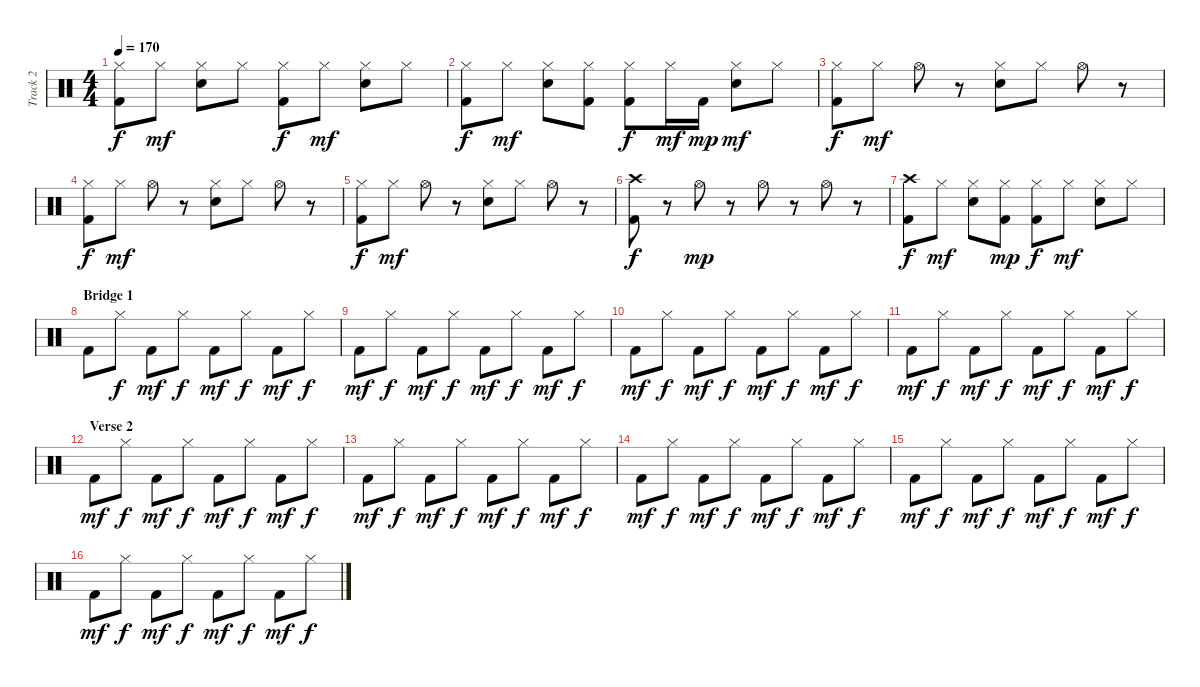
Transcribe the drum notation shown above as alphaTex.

\track ("Track 2" "Track 2") {instrument percussion}
\staff {score}
\articulation defaults
\ts (4 4)
\tempo 170
\clef neutral
\ks c
("Hi-Hat (closed)" "Kick (hit) 2").8{dy f} "Hi-Hat (closed)".8{dy mf} ("Hi-Hat (closed)" "Electric Snare (hit)").8 "Hi-Hat (closed)".8 ("Hi-Hat (closed)" "Kick (hit) 2").8{dy f} "Hi-Hat (closed)".8{dy mf} ("Hi-Hat (closed)" "Electric Snare (hit)").8 "Hi-Hat (closed)".8 |
("Hi-Hat (closed)" "Kick (hit) 2").8{dy f} "Hi-Hat (closed)".8{dy mf} ("Hi-Hat (closed)" "Electric Snare (hit)").8 ("Hi-Hat (closed)" "Kick (hit) 2").8 ("Hi-Hat (closed)" "Kick (hit) 2").8{dy f} "Hi-Hat (closed)".16{dy mf} "Kick (hit) 2".16{dy mp} ("Hi-Hat (closed)" "Electric Snare (hit)").8{dy mf} "Hi-Hat (closed)".8 |
("Hi-Hat (closed)" "Kick (hit) 2").8{dy f} "Hi-Hat (closed)".8{dy mf} "Hi-Hat (open)".8 r.8 ("Hi-Hat (closed)" "Electric Snare (hit)").8 "Hi-Hat (closed)".8 "Hi-Hat (open)".8 r.8 |
("Hi-Hat (closed)" "Kick (hit) 2").8{dy f} "Hi-Hat (closed)".8{dy mf} "Hi-Hat (open)".8 r.8 ("Hi-Hat (closed)" "Electric Snare (hit)").8 "Hi-Hat (closed)".8 "Hi-Hat (open)".8 r.8 |
("Hi-Hat (closed)" "Kick (hit) 2").8{dy f} "Hi-Hat (closed)".8{dy mf} "Hi-Hat (open)".8 r.8 ("Hi-Hat (closed)" "Electric Snare (hit)").8 "Hi-Hat (closed)".8 "Hi-Hat (open)".8 r.8 |
("Crash high (hit)" "Kick (hit) 2").8{dy f} r.8 "Hi-Hat (open)".8{dy mp} r.8 "Hi-Hat (open)".8 r.8 "Hi-Hat (open)".8 r.8 |
("Crash high (hit)" "Kick (hit) 2").8{dy f} "Hi-Hat (closed)".8{dy mf} ("Hi-Hat (closed)" "Electric Snare (hit)").8 ("Hi-Hat (closed)" "Kick (hit) 2").8{dy mp} ("Hi-Hat (closed)" "Kick (hit) 2").8{dy f} "Hi-Hat (closed)".8{dy mf} ("Hi-Hat (closed)" "Electric Snare (hit)").8 "Hi-Hat (closed)".8 |
\section ("" "Bridge 1")
"Kick (hit) 2".8 "Hi-Hat (closed)".8{dy f} "Kick (hit) 2".8{dy mf} "Hi-Hat (closed)".8{dy f} "Kick (hit) 2".8{dy mf} "Hi-Hat (closed)".8{dy f} "Kick (hit) 2".8{dy mf} "Hi-Hat (closed)".8{dy f} |
"Kick (hit) 2".8{dy mf} "Hi-Hat (closed)".8{dy f} "Kick (hit) 2".8{dy mf} "Hi-Hat (closed)".8{dy f} "Kick (hit) 2".8{dy mf} "Hi-Hat (closed)".8{dy f} "Kick (hit) 2".8{dy mf} "Hi-Hat (closed)".8{dy f} |
"Kick (hit) 2".8{dy mf} "Hi-Hat (closed)".8{dy f} "Kick (hit) 2".8{dy mf} "Hi-Hat (closed)".8{dy f} "Kick (hit) 2".8{dy mf} "Hi-Hat (closed)".8{dy f} "Kick (hit) 2".8{dy mf} "Hi-Hat (closed)".8{dy f} |
"Kick (hit) 2".8{dy mf} "Hi-Hat (closed)".8{dy f} "Kick (hit) 2".8{dy mf} "Hi-Hat (closed)".8{dy f} "Kick (hit) 2".8{dy mf} "Hi-Hat (closed)".8{dy f} "Kick (hit) 2".8{dy mf} "Hi-Hat (closed)".8{dy f} |
\section ("" "Verse 2")
"Kick (hit) 2".8{dy mf} "Hi-Hat (closed)".8{dy f} "Kick (hit) 2".8{dy mf} "Hi-Hat (closed)".8{dy f} "Kick (hit) 2".8{dy mf} "Hi-Hat (closed)".8{dy f} "Kick (hit) 2".8{dy mf} "Hi-Hat (closed)".8{dy f} |
"Kick (hit) 2".8{dy mf} "Hi-Hat (closed)".8{dy f} "Kick (hit) 2".8{dy mf} "Hi-Hat (closed)".8{dy f} "Kick (hit) 2".8{dy mf} "Hi-Hat (closed)".8{dy f} "Kick (hit) 2".8{dy mf} "Hi-Hat (closed)".8{dy f} |
"Kick (hit) 2".8{dy mf} "Hi-Hat (closed)".8{dy f} "Kick (hit) 2".8{dy mf} "Hi-Hat (closed)".8{dy f} "Kick (hit) 2".8{dy mf} "Hi-Hat (closed)".8{dy f} "Kick (hit) 2".8{dy mf} "Hi-Hat (closed)".8{dy f} |
"Kick (hit) 2".8{dy mf} "Hi-Hat (closed)".8{dy f} "Kick (hit) 2".8{dy mf} "Hi-Hat (closed)".8{dy f} "Kick (hit) 2".8{dy mf} "Hi-Hat (closed)".8{dy f} "Kick (hit) 2".8{dy mf} "Hi-Hat (closed)".8{dy f} |
"Kick (hit) 2".8{dy mf} "Hi-Hat (closed)".8{dy f} "Kick (hit) 2".8{dy mf} "Hi-Hat (closed)".8{dy f} "Kick (hit) 2".8{dy mf} "Hi-Hat (closed)".8{dy f} "Kick (hit) 2".8{dy mf} "Hi-Hat (closed)".8{dy f}
